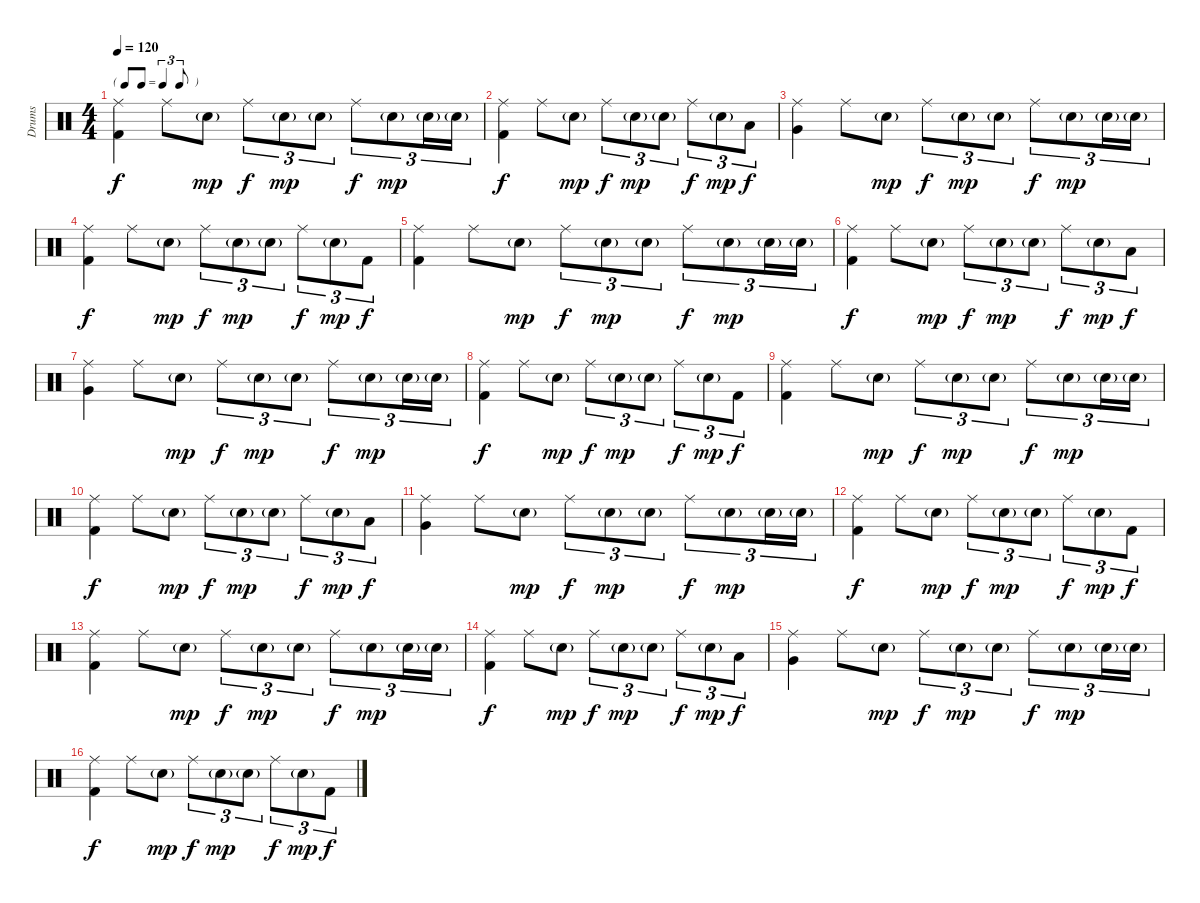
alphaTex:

\track ("Drums" "Drums") {instrument percussion}
\staff {score}
\articulation defaults
\ts (4 4)
\tf triplet8th
\tempo 120
\clef neutral
\ks c
("Ride (middle)" "Kick (hit) 2").4{dy f} "Ride (middle)".8 "Snare (hit) 2"{g}.8{dy mp} "Ride (middle)".8{tu (3 2) dy f} "Snare (hit) 2"{g}.8{tu (3 2) dy mp} "Snare (hit) 2"{g}.8{tu (3 2)} "Ride (middle)".8{tu (3 2) dy f} "Snare (hit) 2"{g}.8{tu (3 2) dy mp} "Snare (hit) 2"{g}.16{tu (3 2)} "Snare (hit) 2"{g}.16{tu (3 2)} |
("Ride (middle)" "Kick (hit) 2").4{dy f} "Ride (middle)".8 "Snare (hit) 2"{g}.8{dy mp} "Ride (middle)".8{tu (3 2) dy f} "Snare (hit) 2"{g}.8{tu (3 2) dy mp} "Snare (hit) 2"{g}.8{tu (3 2)} "Ride (middle)".8{tu (3 2) dy f} "Snare (hit) 2"{g}.8{tu (3 2) dy mp} "Low Tom (hit)".8{tu (3 2) dy f} |
("Ride (middle)" "Very Low Tom (hit)").4 "Ride (middle)".8 "Snare (hit) 2"{g}.8{dy mp} "Ride (middle)".8{tu (3 2) dy f} "Snare (hit) 2"{g}.8{tu (3 2) dy mp} "Snare (hit) 2"{g}.8{tu (3 2)} "Ride (middle)".8{tu (3 2) dy f} "Snare (hit) 2"{g}.8{tu (3 2) dy mp} "Snare (hit) 2"{g}.16{tu (3 2)} "Snare (hit) 2"{g}.16{tu (3 2)} |
("Ride (middle)" "Kick (hit) 2").4{dy f} "Ride (middle)".8 "Snare (hit) 2"{g}.8{dy mp} "Ride (middle)".8{tu (3 2) dy f} "Snare (hit) 2"{g}.8{tu (3 2) dy mp} "Snare (hit) 2"{g}.8{tu (3 2)} "Ride (middle)".8{tu (3 2) dy f} "Snare (hit) 2"{g}.8{tu (3 2) dy mp} "Kick (hit) 2".8{tu (3 2) dy f} |
("Ride (middle)" "Kick (hit) 2").4 "Ride (middle)".8 "Snare (hit) 2"{g}.8{dy mp} "Ride (middle)".8{tu (3 2) dy f} "Snare (hit) 2"{g}.8{tu (3 2) dy mp} "Snare (hit) 2"{g}.8{tu (3 2)} "Ride (middle)".8{tu (3 2) dy f} "Snare (hit) 2"{g}.8{tu (3 2) dy mp} "Snare (hit) 2"{g}.16{tu (3 2)} "Snare (hit) 2"{g}.16{tu (3 2)} |
("Ride (middle)" "Kick (hit) 2").4{dy f} "Ride (middle)".8 "Snare (hit) 2"{g}.8{dy mp} "Ride (middle)".8{tu (3 2) dy f} "Snare (hit) 2"{g}.8{tu (3 2) dy mp} "Snare (hit) 2"{g}.8{tu (3 2)} "Ride (middle)".8{tu (3 2) dy f} "Snare (hit) 2"{g}.8{tu (3 2) dy mp} "Low Tom (hit)".8{tu (3 2) dy f} |
("Ride (middle)" "Very Low Tom (hit)").4 "Ride (middle)".8 "Snare (hit) 2"{g}.8{dy mp} "Ride (middle)".8{tu (3 2) dy f} "Snare (hit) 2"{g}.8{tu (3 2) dy mp} "Snare (hit) 2"{g}.8{tu (3 2)} "Ride (middle)".8{tu (3 2) dy f} "Snare (hit) 2"{g}.8{tu (3 2) dy mp} "Snare (hit) 2"{g}.16{tu (3 2)} "Snare (hit) 2"{g}.16{tu (3 2)} |
("Ride (middle)" "Kick (hit) 2").4{dy f} "Ride (middle)".8 "Snare (hit) 2"{g}.8{dy mp} "Ride (middle)".8{tu (3 2) dy f} "Snare (hit) 2"{g}.8{tu (3 2) dy mp} "Snare (hit) 2"{g}.8{tu (3 2)} "Ride (middle)".8{tu (3 2) dy f} "Snare (hit) 2"{g}.8{tu (3 2) dy mp} "Kick (hit) 2".8{tu (3 2) dy f} |
("Ride (middle)" "Kick (hit) 2").4 "Ride (middle)".8 "Snare (hit) 2"{g}.8{dy mp} "Ride (middle)".8{tu (3 2) dy f} "Snare (hit) 2"{g}.8{tu (3 2) dy mp} "Snare (hit) 2"{g}.8{tu (3 2)} "Ride (middle)".8{tu (3 2) dy f} "Snare (hit) 2"{g}.8{tu (3 2) dy mp} "Snare (hit) 2"{g}.16{tu (3 2)} "Snare (hit) 2"{g}.16{tu (3 2)} |
("Ride (middle)" "Kick (hit) 2").4{dy f} "Ride (middle)".8 "Snare (hit) 2"{g}.8{dy mp} "Ride (middle)".8{tu (3 2) dy f} "Snare (hit) 2"{g}.8{tu (3 2) dy mp} "Snare (hit) 2"{g}.8{tu (3 2)} "Ride (middle)".8{tu (3 2) dy f} "Snare (hit) 2"{g}.8{tu (3 2) dy mp} "Low Tom (hit)".8{tu (3 2) dy f} |
("Ride (middle)" "Very Low Tom (hit)").4 "Ride (middle)".8 "Snare (hit) 2"{g}.8{dy mp} "Ride (middle)".8{tu (3 2) dy f} "Snare (hit) 2"{g}.8{tu (3 2) dy mp} "Snare (hit) 2"{g}.8{tu (3 2)} "Ride (middle)".8{tu (3 2) dy f} "Snare (hit) 2"{g}.8{tu (3 2) dy mp} "Snare (hit) 2"{g}.16{tu (3 2)} "Snare (hit) 2"{g}.16{tu (3 2)} |
("Ride (middle)" "Kick (hit) 2").4{dy f} "Ride (middle)".8 "Snare (hit) 2"{g}.8{dy mp} "Ride (middle)".8{tu (3 2) dy f} "Snare (hit) 2"{g}.8{tu (3 2) dy mp} "Snare (hit) 2"{g}.8{tu (3 2)} "Ride (middle)".8{tu (3 2) dy f} "Snare (hit) 2"{g}.8{tu (3 2) dy mp} "Kick (hit) 2".8{tu (3 2) dy f} |
("Ride (middle)" "Kick (hit) 2").4 "Ride (middle)".8 "Snare (hit) 2"{g}.8{dy mp} "Ride (middle)".8{tu (3 2) dy f} "Snare (hit) 2"{g}.8{tu (3 2) dy mp} "Snare (hit) 2"{g}.8{tu (3 2)} "Ride (middle)".8{tu (3 2) dy f} "Snare (hit) 2"{g}.8{tu (3 2) dy mp} "Snare (hit) 2"{g}.16{tu (3 2)} "Snare (hit) 2"{g}.16{tu (3 2)} |
("Ride (middle)" "Kick (hit) 2").4{dy f} "Ride (middle)".8 "Snare (hit) 2"{g}.8{dy mp} "Ride (middle)".8{tu (3 2) dy f} "Snare (hit) 2"{g}.8{tu (3 2) dy mp} "Snare (hit) 2"{g}.8{tu (3 2)} "Ride (middle)".8{tu (3 2) dy f} "Snare (hit) 2"{g}.8{tu (3 2) dy mp} "Low Tom (hit)".8{tu (3 2) dy f} |
("Ride (middle)" "Very Low Tom (hit)").4 "Ride (middle)".8 "Snare (hit) 2"{g}.8{dy mp} "Ride (middle)".8{tu (3 2) dy f} "Snare (hit) 2"{g}.8{tu (3 2) dy mp} "Snare (hit) 2"{g}.8{tu (3 2)} "Ride (middle)".8{tu (3 2) dy f} "Snare (hit) 2"{g}.8{tu (3 2) dy mp} "Snare (hit) 2"{g}.16{tu (3 2)} "Snare (hit) 2"{g}.16{tu (3 2)} |
("Ride (middle)" "Kick (hit) 2").4{dy f} "Ride (middle)".8 "Snare (hit) 2"{g}.8{dy mp} "Ride (middle)".8{tu (3 2) dy f} "Snare (hit) 2"{g}.8{tu (3 2) dy mp} "Snare (hit) 2"{g}.8{tu (3 2)} "Ride (middle)".8{tu (3 2) dy f} "Snare (hit) 2"{g}.8{tu (3 2) dy mp} "Kick (hit) 2".8{tu (3 2) dy f}
